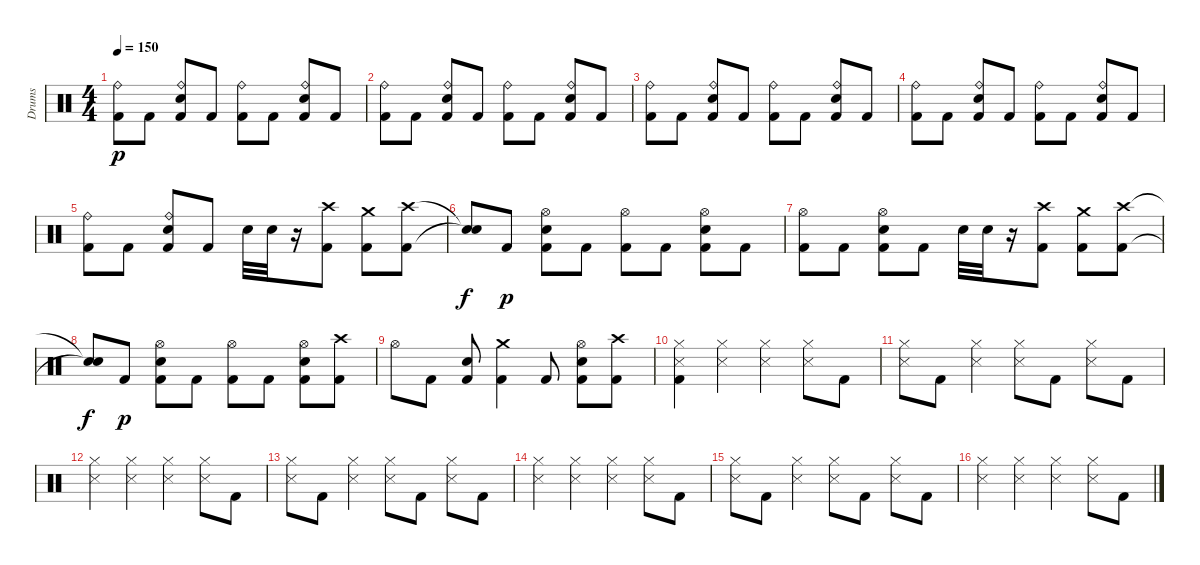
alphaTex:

\track ("Drums" "Drums") {instrument percussion}
\staff {score}
\articulation defaults
\ts (4 4)
\tempo 150
\clef neutral
\ks c
("Kick (hit) 2" "Ride (bell)").8{dy p} "Kick (hit) 2".8 ("Kick (hit) 2" "Snare (hit) 2" "Ride (bell)").8 "Kick (hit) 2".8 ("Kick (hit) 2" "Ride (bell)").8 "Kick (hit) 2".8 ("Kick (hit) 2" "Snare (hit) 2" "Ride (bell)").8 "Kick (hit) 2".8 |
("Kick (hit) 2" "Ride (bell)").8 "Kick (hit) 2".8 ("Kick (hit) 2" "Snare (hit) 2" "Ride (bell)").8 "Kick (hit) 2".8 ("Kick (hit) 2" "Ride (bell)").8 "Kick (hit) 2".8 ("Kick (hit) 2" "Snare (hit) 2" "Ride (bell)").8 "Kick (hit) 2".8 |
("Kick (hit) 2" "Ride (bell)").8 "Kick (hit) 2".8 ("Kick (hit) 2" "Snare (hit) 2" "Ride (bell)").8 "Kick (hit) 2".8 ("Kick (hit) 2" "Ride (bell)").8 "Kick (hit) 2".8 ("Kick (hit) 2" "Snare (hit) 2" "Ride (bell)").8 "Kick (hit) 2".8 |
("Kick (hit) 2" "Ride (bell)").8 "Kick (hit) 2".8 ("Kick (hit) 2" "Snare (hit) 2" "Ride (bell)").8 "Kick (hit) 2".8 ("Kick (hit) 2" "Ride (bell)").8 "Kick (hit) 2".8 ("Kick (hit) 2" "Snare (hit) 2" "Ride (bell)").8 "Kick (hit) 2".8 |
("Kick (hit) 2" "Ride (bell)").8 "Kick (hit) 2".8 ("Kick (hit) 2" "Snare (hit) 2" "Ride (bell)").8 "Kick (hit) 2".8 "Snare (hit) 2".32 "Snare (hit) 2".32 r.16 ("Kick (hit) 2" "Crash high (hit)").8 ("Kick (hit) 2" "Crash medium (hit)").8 ("Kick (hit) 2" "Crash high (hit)").8 |
("Snare (hit)"{t} "Snare (hit)"{t}).8{dy f} "Kick (hit) 2".8{dy p} ("Kick (hit) 2" "Snare (hit) 2" "Hi-Hat (open)").8 "Kick (hit) 2".8 ("Kick (hit) 2" "Hi-Hat (open)").8 "Kick (hit) 2".8 ("Kick (hit) 2" "Snare (hit) 2" "Hi-Hat (open)").8 "Kick (hit) 2".8 |
("Kick (hit) 2" "Hi-Hat (open)").8 "Kick (hit) 2".8 ("Kick (hit) 2" "Snare (hit) 2" "Hi-Hat (open)").8 "Kick (hit) 2".8 "Snare (hit) 2".32 "Snare (hit) 2".32 r.16 ("Kick (hit) 2" "Crash high (hit)").8 ("Kick (hit) 2" "Crash medium (hit)").8 ("Kick (hit) 2" "Crash high (hit)").8 |
("Snare (hit)"{t} "Snare (hit)"{t}).8{dy f} "Kick (hit) 2".8{dy p} ("Kick (hit) 2" "Snare (hit) 2" "Hi-Hat (open)").8 "Kick (hit) 2".8 ("Kick (hit) 2" "Hi-Hat (open)").8 "Kick (hit) 2".8 ("Kick (hit) 2" "Snare (hit) 2" "Hi-Hat (open)").8 ("Kick (hit) 2" "Crash high (hit)").8 |
"Hi-Hat (open)".8 "Kick (hit) 2".8 ("Kick (hit) 2" "Snare (hit) 2").8 ("Kick (hit) 2" "Crash medium (hit)").4 "Kick (hit) 2".8 ("Kick (hit) 2" "Snare (hit) 2" "Hi-Hat (open)").8 ("Kick (hit) 2" "Crash high (hit)").8 |
("Snare (side stick) 3" "Kick (hit) 2" "Hi-Hat (closed)").4 ("Snare (side stick) 3" "Hi-Hat (closed)").4 ("Snare (side stick) 3" "Hi-Hat (closed)").4 ("Snare (side stick) 3" "Hi-Hat (closed)").8 "Kick (hit) 2".8 |
("Snare (side stick) 3" "Hi-Hat (closed)").8 "Kick (hit) 2".8 ("Snare (side stick) 3" "Hi-Hat (closed)").4 ("Snare (side stick) 3" "Hi-Hat (closed)").8 "Kick (hit) 2".8 ("Snare (side stick) 3" "Hi-Hat (closed)").8 "Kick (hit) 2".8 |
("Snare (side stick) 3" "Hi-Hat (closed)").4 ("Snare (side stick) 3" "Hi-Hat (closed)").4 ("Snare (side stick) 3" "Hi-Hat (closed)").4 ("Snare (side stick) 3" "Hi-Hat (closed)").8 "Kick (hit) 2".8 |
("Snare (side stick) 3" "Hi-Hat (closed)").8 "Kick (hit) 2".8 ("Snare (side stick) 3" "Hi-Hat (closed)").4 ("Snare (side stick) 3" "Hi-Hat (closed)").8 "Kick (hit) 2".8 ("Snare (side stick) 3" "Hi-Hat (closed)").8 "Kick (hit) 2".8 |
("Snare (side stick) 3" "Hi-Hat (closed)").4 ("Snare (side stick) 3" "Hi-Hat (closed)").4 ("Snare (side stick) 3" "Hi-Hat (closed)").4 ("Snare (side stick) 3" "Hi-Hat (closed)").8 "Kick (hit) 2".8 |
("Snare (side stick) 3" "Hi-Hat (closed)").8 "Kick (hit) 2".8 ("Snare (side stick) 3" "Hi-Hat (closed)").4 ("Snare (side stick) 3" "Hi-Hat (closed)").8 "Kick (hit) 2".8 ("Snare (side stick) 3" "Hi-Hat (closed)").8 "Kick (hit) 2".8 |
("Snare (side stick) 3" "Hi-Hat (closed)").4 ("Snare (side stick) 3" "Hi-Hat (closed)").4 ("Snare (side stick) 3" "Hi-Hat (closed)").4 ("Snare (side stick) 3" "Hi-Hat (closed)").8 "Kick (hit) 2".8
